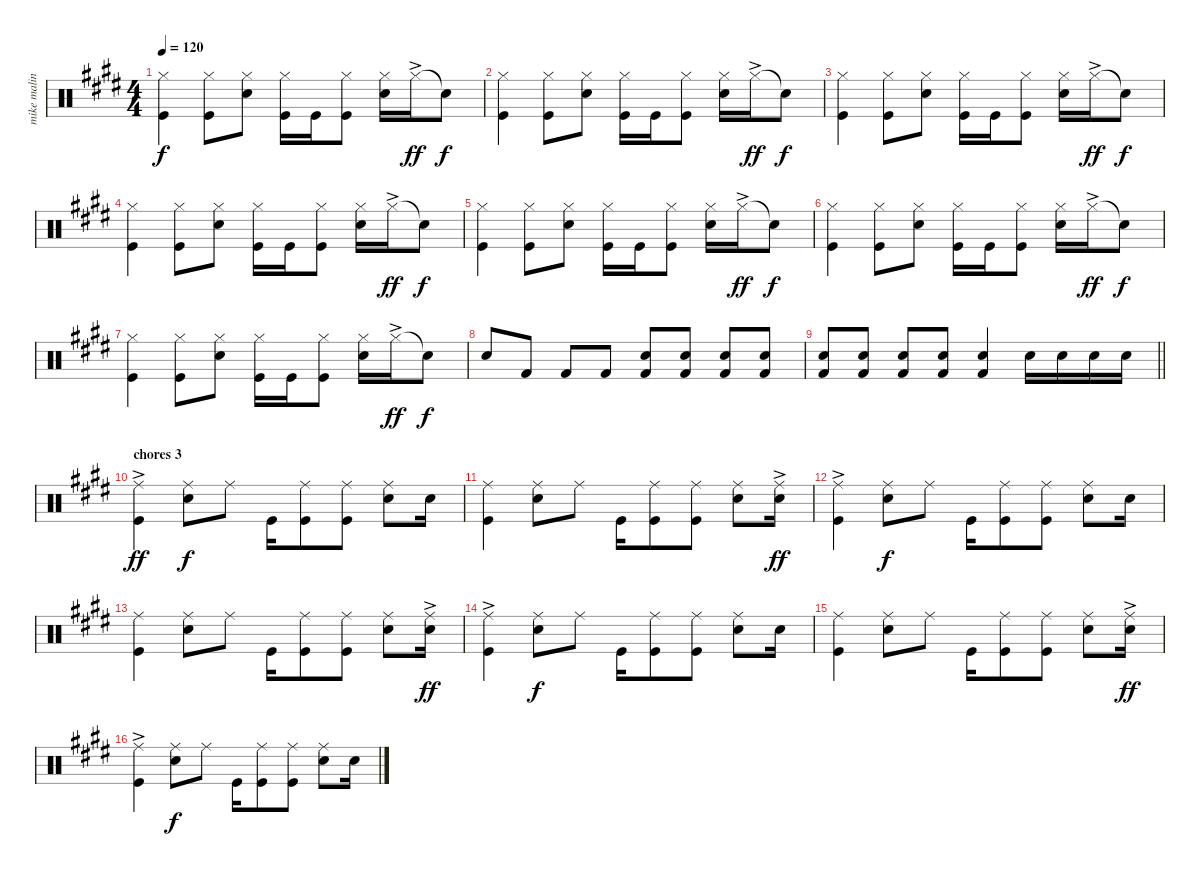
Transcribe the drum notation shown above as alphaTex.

\track ("mike malinin(drums)" "mike malin") {instrument percussion}
\staff {score}
\articulation defaults
\ts (4 4)
\tempo 120
\clef neutral
\ks e
("Hi-Hat (closed)" "Kick (hit)").4{dy f} ("Hi-Hat (closed)" "Kick (hit)").8 ("Hi-Hat (closed)" "Snare (hit) 2").8 ("Hi-Hat (closed)" "Kick (hit)").16 "Kick (hit)".16 ("Hi-Hat (closed)" "Kick (hit)").8 ("Hi-Hat (closed)" "Snare (hit) 2").16 "Hi-Hat (closed)"{ac}.16{dy ff} "Snare (hit)"{t}.8{dy f} |
("Hi-Hat (closed)" "Kick (hit)").4 ("Hi-Hat (closed)" "Kick (hit)").8 ("Hi-Hat (closed)" "Snare (hit) 2").8 ("Hi-Hat (closed)" "Kick (hit)").16 "Kick (hit)".16 ("Hi-Hat (closed)" "Kick (hit)").8 ("Hi-Hat (closed)" "Snare (hit) 2").16 "Hi-Hat (closed)"{ac}.16{dy ff} "Snare (hit)"{t}.8{dy f} |
("Hi-Hat (closed)" "Kick (hit)").4 ("Hi-Hat (closed)" "Kick (hit)").8 ("Hi-Hat (closed)" "Snare (hit) 2").8 ("Hi-Hat (closed)" "Kick (hit)").16 "Kick (hit)".16 ("Hi-Hat (closed)" "Kick (hit)").8 ("Hi-Hat (closed)" "Snare (hit) 2").16 "Hi-Hat (closed)"{ac}.16{dy ff} "Snare (hit)"{t}.8{dy f} |
("Hi-Hat (closed)" "Kick (hit)").4 ("Hi-Hat (closed)" "Kick (hit)").8 ("Hi-Hat (closed)" "Snare (hit) 2").8 ("Hi-Hat (closed)" "Kick (hit)").16 "Kick (hit)".16 ("Hi-Hat (closed)" "Kick (hit)").8 ("Hi-Hat (closed)" "Snare (hit) 2").16 "Hi-Hat (closed)"{ac}.16{dy ff} "Snare (hit)"{t}.8{dy f} |
("Hi-Hat (closed)" "Kick (hit)").4 ("Hi-Hat (closed)" "Kick (hit)").8 ("Hi-Hat (closed)" "Snare (hit) 2").8 ("Hi-Hat (closed)" "Kick (hit)").16 "Kick (hit)".16 ("Hi-Hat (closed)" "Kick (hit)").8 ("Hi-Hat (closed)" "Snare (hit) 2").16 "Hi-Hat (closed)"{ac}.16{dy ff} "Snare (hit)"{t}.8{dy f} |
("Hi-Hat (closed)" "Kick (hit)").4 ("Hi-Hat (closed)" "Kick (hit)").8 ("Hi-Hat (closed)" "Snare (hit) 2").8 ("Hi-Hat (closed)" "Kick (hit)").16 "Kick (hit)".16 ("Hi-Hat (closed)" "Kick (hit)").8 ("Hi-Hat (closed)" "Snare (hit) 2").16 "Hi-Hat (closed)"{ac}.16{dy ff} "Snare (hit)"{t}.8{dy f} |
("Hi-Hat (closed)" "Kick (hit)").4 ("Hi-Hat (closed)" "Kick (hit)").8 ("Hi-Hat (closed)" "Snare (hit) 2").8 ("Hi-Hat (closed)" "Kick (hit)").16 "Kick (hit)".16 ("Hi-Hat (closed)" "Kick (hit)").8 ("Hi-Hat (closed)" "Snare (hit) 2").16 "Hi-Hat (closed)"{ac}.16{dy ff} "Snare (hit)"{t}.8{dy f} |
"Snare (hit) 2".8 "Kick (hit) 2".8 "Kick (hit) 2".8 "Kick (hit) 2".8 ("Snare (hit) 2" "Kick (hit) 2").8 ("Snare (hit) 2" "Kick (hit) 2").8 ("Snare (hit) 2" "Kick (hit) 2").8 ("Snare (hit) 2" "Kick (hit) 2").8 |
\barLineRight lightlight
("Snare (hit) 2" "Kick (hit) 2").8 ("Snare (hit) 2" "Kick (hit) 2").8 ("Snare (hit) 2" "Kick (hit) 2").8 ("Snare (hit) 2" "Kick (hit) 2").8 ("Snare (hit) 2" "Kick (hit) 2").4 "Snare (hit) 2".16 "Snare (hit) 2".16 "Snare (hit) 2".16 "Snare (hit) 2".16 |
\section ("" "chores 3")
("Kick (hit)"{ac} "Ride (middle)").4{dy ff} ("Ride (middle)" "Snare (hit) 2").8{dy f} "Ride (middle)".8 "Kick (hit)".16 ("Ride (middle)" "Kick (hit)").8 ("Ride (middle)" "Kick (hit)").8 ("Ride (middle)" "Snare (hit) 2").8 "Snare (hit) 2".16 |
("Kick (hit)" "Ride (middle)").4 ("Ride (middle)" "Snare (hit) 2").8 "Ride (middle)".8 "Kick (hit)".16 ("Ride (middle)" "Kick (hit)").8 ("Ride (middle)" "Kick (hit)").8 ("Ride (middle)" "Snare (hit) 2").8 ("Ride (middle)"{ac} "Snare (hit) 2").16{dy ff} |
("Kick (hit)"{ac} "Ride (middle)").4 ("Ride (middle)" "Snare (hit) 2").8{dy f} "Ride (middle)".8 "Kick (hit)".16 ("Ride (middle)" "Kick (hit)").8 ("Ride (middle)" "Kick (hit)").8 ("Ride (middle)" "Snare (hit) 2").8 "Snare (hit) 2".16 |
("Kick (hit)" "Ride (middle)").4 ("Ride (middle)" "Snare (hit) 2").8 "Ride (middle)".8 "Kick (hit)".16 ("Ride (middle)" "Kick (hit)").8 ("Ride (middle)" "Kick (hit)").8 ("Ride (middle)" "Snare (hit) 2").8 ("Ride (middle)"{ac} "Snare (hit) 2").16{dy ff} |
("Kick (hit)"{ac} "Ride (middle)").4 ("Ride (middle)" "Snare (hit) 2").8{dy f} "Ride (middle)".8 "Kick (hit)".16 ("Ride (middle)" "Kick (hit)").8 ("Ride (middle)" "Kick (hit)").8 ("Ride (middle)" "Snare (hit) 2").8 "Snare (hit) 2".16 |
("Kick (hit)" "Ride (middle)").4 ("Ride (middle)" "Snare (hit) 2").8 "Ride (middle)".8 "Kick (hit)".16 ("Ride (middle)" "Kick (hit)").8 ("Ride (middle)" "Kick (hit)").8 ("Ride (middle)" "Snare (hit) 2").8 ("Ride (middle)"{ac} "Snare (hit) 2").16{dy ff} |
("Kick (hit)"{ac} "Ride (middle)").4 ("Ride (middle)" "Snare (hit) 2").8{dy f} "Ride (middle)".8 "Kick (hit)".16 ("Ride (middle)" "Kick (hit)").8 ("Ride (middle)" "Kick (hit)").8 ("Ride (middle)" "Snare (hit) 2").8 "Snare (hit) 2".16
